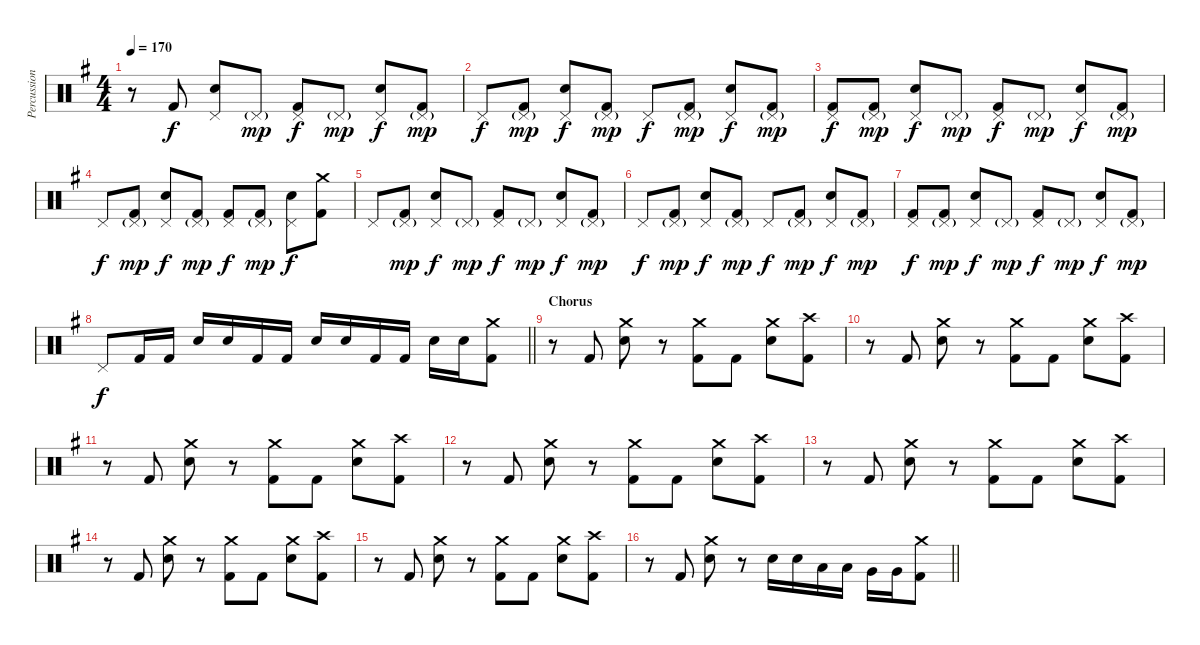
\track ("Percussion" "Percussion") {instrument percussion}
\staff {score}
\articulation defaults
\ts (4 4)
\tempo 170
\clef neutral
\ks g
r.8{dy f} "Kick (hit) 2".8 ("Pedal Hi-Hat (hit)" "Electric Snare (hit)").8 "Pedal Hi-Hat (hit)"{g}.8{dy mp} ("Pedal Hi-Hat (hit)" "Kick (hit) 2").8{dy f} "Pedal Hi-Hat (hit)"{g}.8{dy mp} ("Pedal Hi-Hat (hit)" "Electric Snare (hit)").8{dy f} ("Pedal Hi-Hat (hit)"{g} "Kick (hit) 2").8{dy mp} |
"Pedal Hi-Hat (hit)".8{dy f} ("Pedal Hi-Hat (hit)"{g} "Kick (hit) 2").8{dy mp} ("Pedal Hi-Hat (hit)" "Electric Snare (hit)").8{dy f} ("Pedal Hi-Hat (hit)"{g} "Kick (hit) 2").8{dy mp} "Pedal Hi-Hat (hit)".8{dy f} ("Pedal Hi-Hat (hit)"{g} "Kick (hit) 2").8{dy mp} ("Pedal Hi-Hat (hit)" "Electric Snare (hit)").8{dy f} ("Pedal Hi-Hat (hit)"{g} "Kick (hit) 2").8{dy mp} |
("Pedal Hi-Hat (hit)" "Kick (hit) 2").8{dy f} ("Pedal Hi-Hat (hit)"{g} "Kick (hit) 2").8{dy mp} ("Pedal Hi-Hat (hit)" "Electric Snare (hit)").8{dy f} "Pedal Hi-Hat (hit)"{g}.8{dy mp} ("Pedal Hi-Hat (hit)" "Kick (hit) 2").8{dy f} "Pedal Hi-Hat (hit)"{g}.8{dy mp} ("Pedal Hi-Hat (hit)" "Electric Snare (hit)").8{dy f} ("Pedal Hi-Hat (hit)"{g} "Kick (hit) 2").8{dy mp} |
"Pedal Hi-Hat (hit)".8{dy f} ("Pedal Hi-Hat (hit)"{g} "Kick (hit) 2").8{dy mp} ("Pedal Hi-Hat (hit)" "Electric Snare (hit)").8{dy f} ("Pedal Hi-Hat (hit)"{g} "Kick (hit) 2").8{dy mp} ("Pedal Hi-Hat (hit)" "Kick (hit) 2").8{dy f} ("Pedal Hi-Hat (hit)"{g} "Kick (hit) 2").8{dy mp} ("Pedal Hi-Hat (hit)" "Electric Snare (hit)").8{dy f} ("Crash medium (hit)" "Kick (hit) 2").8 |
"Pedal Hi-Hat (hit)".8 ("Pedal Hi-Hat (hit)"{g} "Kick (hit) 2").8{dy mp} ("Pedal Hi-Hat (hit)" "Electric Snare (hit)").8{dy f} "Pedal Hi-Hat (hit)"{g}.8{dy mp} ("Pedal Hi-Hat (hit)" "Kick (hit) 2").8{dy f} "Pedal Hi-Hat (hit)"{g}.8{dy mp} ("Pedal Hi-Hat (hit)" "Electric Snare (hit)").8{dy f} ("Pedal Hi-Hat (hit)"{g} "Kick (hit) 2").8{dy mp} |
"Pedal Hi-Hat (hit)".8{dy f} ("Pedal Hi-Hat (hit)"{g} "Kick (hit) 2").8{dy mp} ("Pedal Hi-Hat (hit)" "Electric Snare (hit)").8{dy f} ("Pedal Hi-Hat (hit)"{g} "Kick (hit) 2").8{dy mp} "Pedal Hi-Hat (hit)".8{dy f} ("Pedal Hi-Hat (hit)"{g} "Kick (hit) 2").8{dy mp} ("Pedal Hi-Hat (hit)" "Electric Snare (hit)").8{dy f} ("Pedal Hi-Hat (hit)"{g} "Kick (hit) 2").8{dy mp} |
("Pedal Hi-Hat (hit)" "Kick (hit) 2").8{dy f} ("Pedal Hi-Hat (hit)"{g} "Kick (hit) 2").8{dy mp} ("Pedal Hi-Hat (hit)" "Electric Snare (hit)").8{dy f} "Pedal Hi-Hat (hit)"{g}.8{dy mp} ("Pedal Hi-Hat (hit)" "Kick (hit) 2").8{dy f} "Pedal Hi-Hat (hit)"{g}.8{dy mp} ("Pedal Hi-Hat (hit)" "Electric Snare (hit)").8{dy f} ("Pedal Hi-Hat (hit)"{g} "Kick (hit) 2").8{dy mp} |
\barLineRight lightlight "Pedal Hi-Hat (hit)".8{dy f} "Kick (hit) 2".16 "Kick (hit) 2".16 "Electric Snare (hit)".16 "Electric Snare (hit)".16 "Kick (hit) 2".16 "Kick (hit) 2".16 "Electric Snare (hit)".16 "Electric Snare (hit)".16 "Kick (hit) 2".16 "Kick (hit) 2".16 "Electric Snare (hit)".16 "Electric Snare (hit)".16
("Crash medium (hit)" "Kick (hit) 2").8 |
\section ("" "Chorus")
r.8 "Kick (hit) 2".8 ("Crash medium (hit)" "Electric Snare (hit)").8 r.8 ("Crash medium (hit)" "Kick (hit) 2").8 "Kick (hit) 2".8 ("Crash medium (hit)" "Electric Snare (hit)").8 ("Crash high (hit)" "Kick (hit) 2").8 |
r.8 "Kick (hit) 2".8 ("Crash medium (hit)" "Electric Snare (hit)").8 r.8 ("Crash medium (hit)" "Kick (hit) 2").8 "Kick (hit) 2".8 ("Crash medium (hit)" "Electric Snare (hit)").8 ("Crash high (hit)" "Kick (hit) 2").8 |
r.8 "Kick (hit) 2".8 ("Crash medium (hit)" "Electric Snare (hit)").8 r.8 ("Crash medium (hit)" "Kick (hit) 2").8 "Kick (hit) 2".8 ("Crash medium (hit)" "Electric Snare (hit)").8 ("Crash high (hit)" "Kick (hit) 2").8 |
r.8 "Kick (hit) 2".8 ("Crash medium (hit)" "Electric Snare (hit)").8 r.8 ("Crash medium (hit)" "Kick (hit) 2").8 "Kick (hit) 2".8 ("Crash medium (hit)" "Electric Snare (hit)").8 ("Crash high (hit)" "Kick (hit) 2").8 |
r.8 "Kick (hit) 2".8 ("Crash medium (hit)" "Electric Snare (hit)").8 r.8 ("Crash medium (hit)" "Kick (hit) 2").8 "Kick (hit) 2".8 ("Crash medium (hit)" "Electric Snare (hit)").8 ("Crash high (hit)" "Kick (hit) 2").8 |
r.8 "Kick (hit) 2".8 ("Crash medium (hit)" "Electric Snare (hit)").8 r.8 ("Crash medium (hit)" "Kick (hit) 2").8 "Kick (hit) 2".8 ("Crash medium (hit)" "Electric Snare (hit)").8 ("Crash high (hit)" "Kick (hit) 2").8 |
r.8 "Kick (hit) 2".8 ("Crash medium (hit)" "Electric Snare (hit)").8 r.8 ("Crash medium (hit)" "Kick (hit) 2").8 "Kick (hit) 2".8 ("Crash medium (hit)" "Electric Snare (hit)").8 ("Crash high (hit)" "Kick (hit) 2").8 |
\barLineRight lightlight
r.8 "Kick (hit) 2".8 ("Crash medium (hit)" "Electric Snare (hit)").8 r.8 "Electric Snare (hit)".16 "Electric Snare (hit)".16 "Low Tom (hit)".16 "Low Tom (hit)".16 "Very Low Tom (hit)".16 "Very Low Tom (hit)".16 ("Crash medium (hit)" "Kick (hit) 2").8
